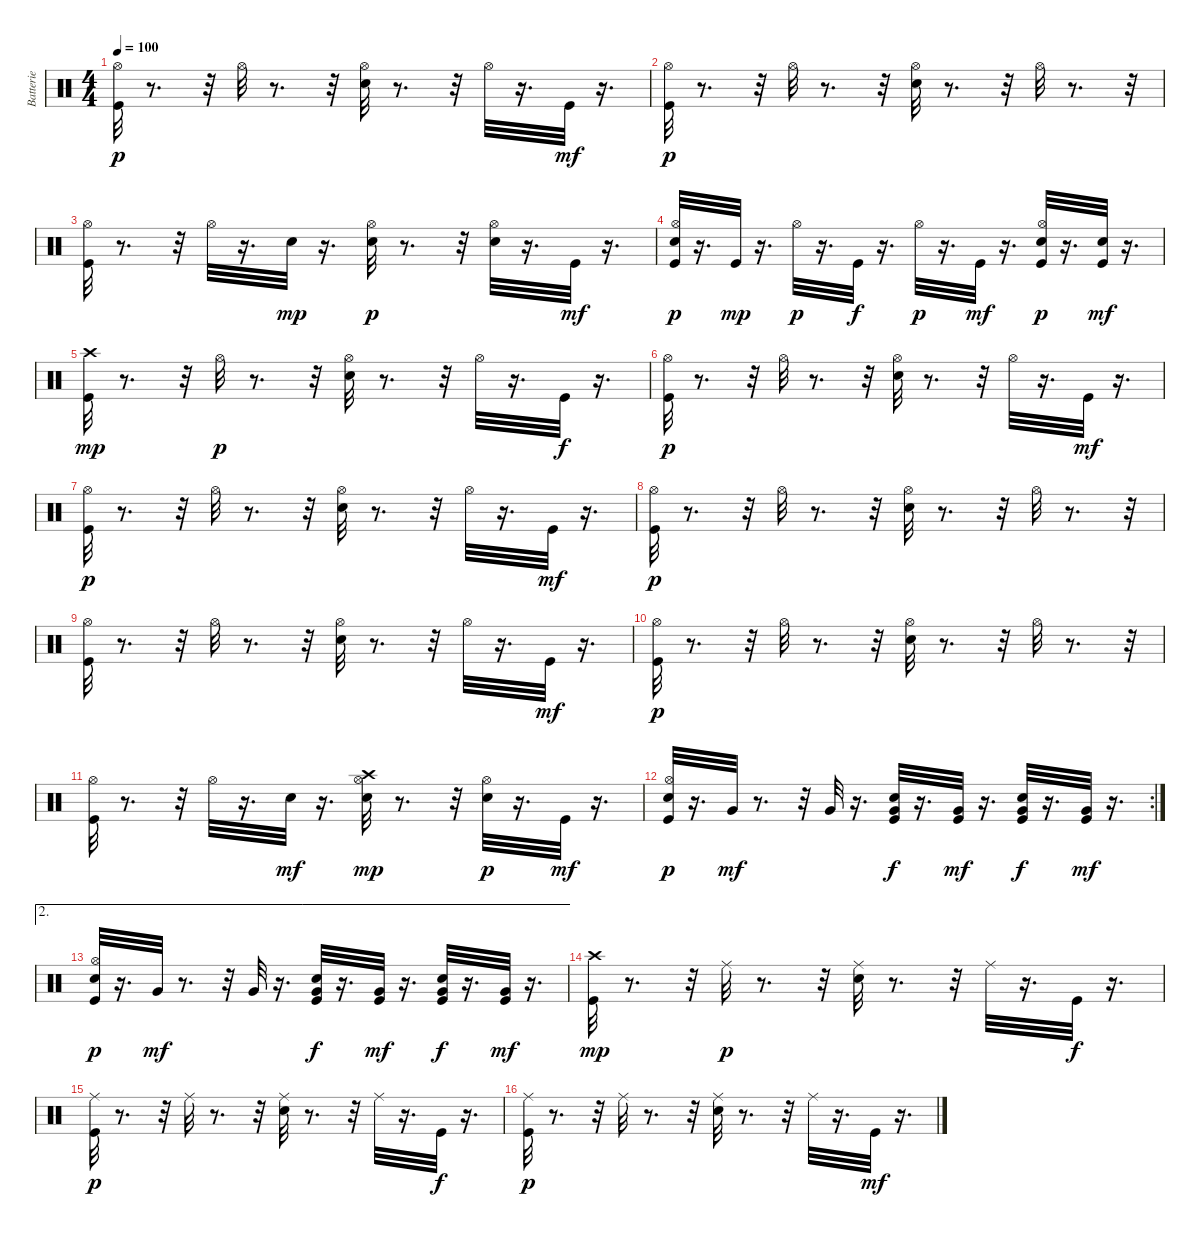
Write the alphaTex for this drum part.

\track ("Batterie" "Batterie") {instrument percussion}
\staff {score}
\articulation defaults
\ts (4 4)
\tempo 100
\clef neutral
\ks c
("Kick (hit)" "Hi-Hat (open)").32{dy p} r.8{d} r.32 "Hi-Hat (open)".32 r.8{d} r.32 ("Snare (hit) 2" "Hi-Hat (open)").32 r.8{d} r.32 "Hi-Hat (open)".32 r.16{d} "Kick (hit)".32{dy mf} r.16{d} |
("Kick (hit)" "Hi-Hat (open)").32{dy p} r.8{d} r.32 "Hi-Hat (open)".32 r.8{d} r.32 ("Snare (hit) 2" "Hi-Hat (open)").32 r.8{d} r.32 "Hi-Hat (open)".32 r.8{d} r.32 |
("Kick (hit)" "Hi-Hat (open)").32 r.8{d} r.32 "Hi-Hat (open)".32 r.16{d} "Snare (hit) 2".32{dy mp} r.16{d} ("Snare (hit) 2" "Hi-Hat (open)").32{dy p} r.8{d} r.32 ("Snare (hit) 2" "Hi-Hat (open)").32 r.16{d} "Kick (hit)".32{dy mf} r.16{d} |
("Kick (hit)" "Snare (hit) 2" "Hi-Hat (open)").32{dy p} r.16{d} "Kick (hit)".32{dy mp} r.16{d} "Hi-Hat (open)".32{dy p} r.16{d} "Kick (hit)".32{dy f} r.16{d} "Hi-Hat (open)".32{dy p} r.16{d} "Kick (hit)".32{dy mf} r.16{d} ("Kick (hit)" "Snare (hit) 2" "Hi-Hat (open)").32{dy p} r.16{d} ("Kick (hit)" "Snare (hit) 2").32{dy mf} r.16{d} |
("Kick (hit)" "Crash high (hit)").32{dy mp} r.8{d} r.32 "Hi-Hat (open)".32{dy p} r.8{d} r.32 ("Snare (hit) 2" "Hi-Hat (open)").32 r.8{d} r.32 "Hi-Hat (open)".32 r.16{d} "Kick (hit)".32{dy f} r.16{d} |
("Kick (hit)" "Hi-Hat (open)").32{dy p} r.8{d} r.32 "Hi-Hat (open)".32 r.8{d} r.32 ("Snare (hit) 2" "Hi-Hat (open)").32 r.8{d} r.32 "Hi-Hat (open)".32 r.16{d} "Kick (hit)".32{dy mf} r.16{d} |
("Kick (hit)" "Hi-Hat (open)").32{dy p} r.8{d} r.32 "Hi-Hat (open)".32 r.8{d} r.32 ("Snare (hit) 2" "Hi-Hat (open)").32 r.8{d} r.32 "Hi-Hat (open)".32 r.16{d} "Kick (hit)".32{dy mf} r.16{d} |
("Kick (hit)" "Hi-Hat (open)").32{dy p} r.8{d} r.32 "Hi-Hat (open)".32 r.8{d} r.32 ("Snare (hit) 2" "Hi-Hat (open)").32 r.8{d} r.32 "Hi-Hat (open)".32 r.8{d} r.32 |
("Kick (hit)" "Hi-Hat (open)").32 r.8{d} r.32 "Hi-Hat (open)".32 r.8{d} r.32 ("Snare (hit) 2" "Hi-Hat (open)").32 r.8{d} r.32 "Hi-Hat (open)".32 r.16{d} "Kick (hit)".32{dy mf} r.16{d} |
("Kick (hit)" "Hi-Hat (open)").32{dy p} r.8{d} r.32 "Hi-Hat (open)".32 r.8{d} r.32 ("Snare (hit) 2" "Hi-Hat (open)").32 r.8{d} r.32 "Hi-Hat (open)".32 r.8{d} r.32 |
("Kick (hit)" "Hi-Hat (open)").32 r.8{d} r.32 "Hi-Hat (open)".32 r.16{d} "Snare (hit) 2".32{dy mf} r.16{d} ("Snare (hit) 2" "Hi-Hat (open)" "Crash high (hit)").32{dy mp} r.8{d} r.32 ("Snare (hit) 2" "Hi-Hat (open)").32{dy p} r.16{d} "Kick (hit)".32{dy mf} r.16{d} |
\rc 2
("Kick (hit)" "Snare (hit) 2" "Hi-Hat (open)").32{dy p} r.16{d} "Very Low Tom (hit)".32{dy mf} r.8{d} r.32 "Very Low Tom (hit)".32 r.16{d} ("Kick (hit)" "Snare (hit) 2" "Very Low Tom (hit)").32{dy f} r.16{d} ("Kick (hit)" "Very Low Tom (hit)").32{dy mf} r.16{d} ("Kick (hit)" "Snare (hit) 2" "Very Low Tom (hit)").32{dy f} r.16{d} ("Kick (hit)" "Very Low Tom (hit)").32{dy mf} r.16{d} |
\ae 2
("Kick (hit)" "Snare (hit) 2" "Hi-Hat (open)").32{dy p} r.16{d} "Very Low Tom (hit)".32{dy mf} r.8{d} r.32 "Very Low Tom (hit)".32 r.16{d} ("Kick (hit)" "Snare (hit) 2" "Very Low Tom (hit)").32{dy f} r.16{d} ("Kick (hit)" "Very Low Tom (hit)").32{dy mf} r.16{d} ("Kick (hit)" "Snare (hit) 2" "Very Low Tom (hit)").32{dy f} r.16{d} ("Kick (hit)" "Very Low Tom (hit)").32{dy mf} r.16{d} |
("Kick (hit)" "Crash high (hit)").32{dy mp} r.8{d} r.32 "Ride (middle)".32{dy p} r.8{d} r.32 ("Snare (hit) 2" "Ride (middle)").32 r.8{d} r.32 "Ride (middle)".32 r.16{d} "Kick (hit)".32{dy f} r.16{d} |
("Kick (hit)" "Ride (middle)").32{dy p} r.8{d} r.32 "Ride (middle)".32 r.8{d} r.32 ("Snare (hit) 2" "Ride (middle)").32 r.8{d} r.32 "Ride (middle)".32 r.16{d} "Kick (hit)".32{dy f} r.16{d} |
("Kick (hit)" "Ride (middle)").32{dy p} r.8{d} r.32 "Ride (middle)".32 r.8{d} r.32 ("Snare (hit) 2" "Ride (middle)").32 r.8{d} r.32 "Ride (middle)".32 r.16{d} "Kick (hit)".32{dy mf} r.16{d}
